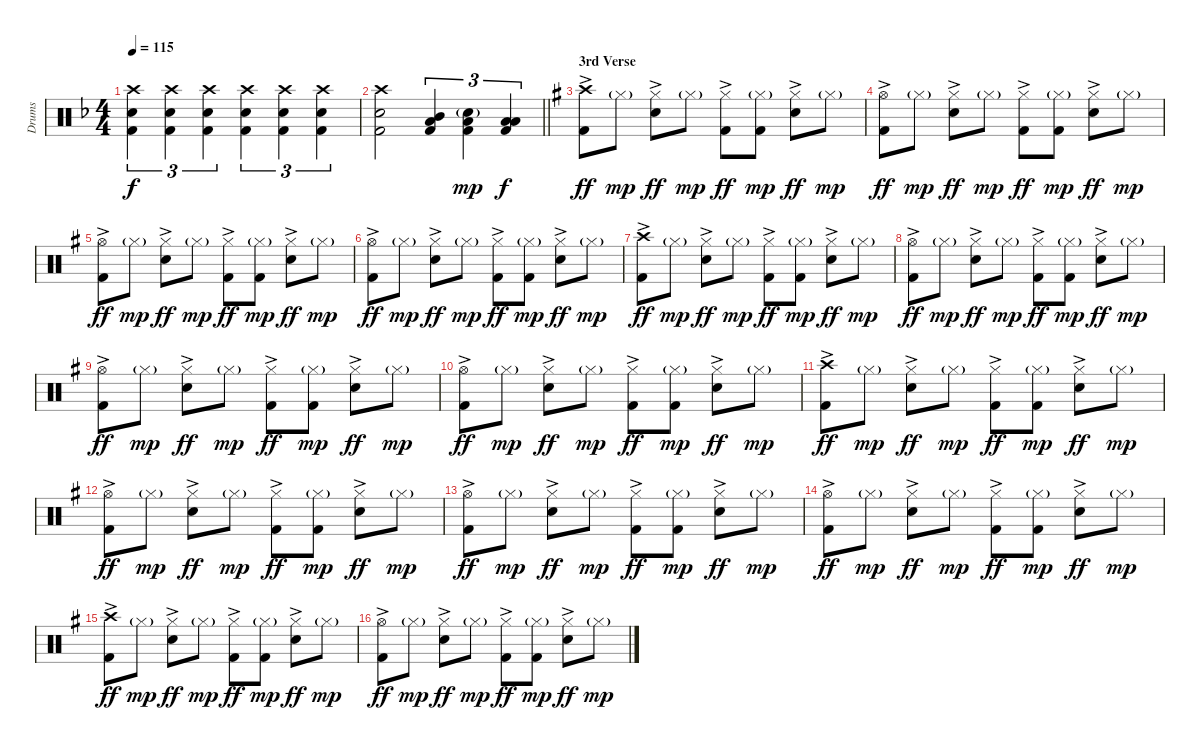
\track ("Drums" "Drums") {instrument percussion}
\staff {score}
\articulation defaults
\ts (4 4)
\tempo 115
\clef neutral
\ks f
("Crash high (hit)" "Snare (hit) 2" "Kick (hit) 2").4{tu (3 2) dy f} ("Crash high (hit)" "Snare (hit) 2" "Kick (hit) 2").4{tu (3 2)} ("Crash high (hit)" "Snare (hit) 2" "Kick (hit) 2").4{tu (3 2)} ("Crash high (hit)" "Snare (hit) 2" "Kick (hit) 2").4{tu (3 2)} ("Crash high (hit)" "Snare (hit) 2" "Kick (hit) 2").4{tu (3 2)} ("Crash high (hit)" "Snare (hit) 2" "Kick (hit) 2").4{tu (3 2)} |
\barLineRight lightlight
("Crash high (hit)" "Snare (hit) 2" "Kick (hit) 2").2 ("Mid Tom (hit)" "Low Tom (hit)" "Kick (hit) 2").4{tu (3 2)} ("Snare (hit) 2"{g} "Low Tom (hit)" "Kick (hit) 2").4{tu (3 2) dy mp} ("Low Tom (hit)" "Low Floor Tom (hit)" "Kick (hit) 2").4{tu (3 2) dy f} |
\section ("" "3rd Verse")
\ks g
("Crash high (hit)" "Kick (hit) 2"{ac}).8{dy ff} "Hi-Hat (closed)"{g}.8{dy mp} ("Hi-Hat (closed)" "Snare (hit) 2"{ac}).8{dy ff} "Hi-Hat (closed)"{g}.8{dy mp} ("Hi-Hat (closed)" "Kick (hit) 2"{ac}).8{dy ff} ("Hi-Hat (closed)"{g} "Kick (hit) 2").8{dy mp} ("Hi-Hat (closed)" "Snare (hit) 2"{ac}).8{dy ff} "Hi-Hat (closed)"{g}.8{dy mp} |
("Hi-Hat (open)" "Kick (hit) 2"{ac}).8{dy ff} "Hi-Hat (closed)"{g}.8{dy mp} ("Hi-Hat (closed)" "Snare (hit) 2"{ac}).8{dy ff} "Hi-Hat (closed)"{g}.8{dy mp} ("Hi-Hat (closed)" "Kick (hit) 2"{ac}).8{dy ff} ("Hi-Hat (closed)"{g} "Kick (hit) 2").8{dy mp} ("Hi-Hat (closed)" "Snare (hit) 2"{ac}).8{dy ff} "Hi-Hat (closed)"{g}.8{dy mp} |
("Hi-Hat (open)" "Kick (hit) 2"{ac}).8{dy ff} "Hi-Hat (closed)"{g}.8{dy mp} ("Hi-Hat (closed)" "Snare (hit) 2"{ac}).8{dy ff} "Hi-Hat (closed)"{g}.8{dy mp} ("Hi-Hat (closed)" "Kick (hit) 2"{ac}).8{dy ff} ("Hi-Hat (closed)"{g} "Kick (hit) 2").8{dy mp} ("Hi-Hat (closed)" "Snare (hit) 2"{ac}).8{dy ff} "Hi-Hat (closed)"{g}.8{dy mp} |
("Hi-Hat (open)" "Kick (hit) 2"{ac}).8{dy ff} "Hi-Hat (closed)"{g}.8{dy mp} ("Hi-Hat (closed)" "Snare (hit) 2"{ac}).8{dy ff} "Hi-Hat (closed)"{g}.8{dy mp} ("Hi-Hat (closed)" "Kick (hit) 2"{ac}).8{dy ff} ("Hi-Hat (closed)"{g} "Kick (hit) 2").8{dy mp} ("Hi-Hat (closed)" "Snare (hit) 2"{ac}).8{dy ff} "Hi-Hat (closed)"{g}.8{dy mp} |
("Crash high (hit)" "Kick (hit) 2"{ac}).8{dy ff} "Hi-Hat (closed)"{g}.8{dy mp} ("Hi-Hat (closed)" "Snare (hit) 2"{ac}).8{dy ff} "Hi-Hat (closed)"{g}.8{dy mp} ("Hi-Hat (closed)" "Kick (hit) 2"{ac}).8{dy ff} ("Hi-Hat (closed)"{g} "Kick (hit) 2").8{dy mp} ("Hi-Hat (closed)" "Snare (hit) 2"{ac}).8{dy ff} "Hi-Hat (closed)"{g}.8{dy mp} |
("Hi-Hat (open)" "Kick (hit) 2"{ac}).8{dy ff} "Hi-Hat (closed)"{g}.8{dy mp} ("Hi-Hat (closed)" "Snare (hit) 2"{ac}).8{dy ff} "Hi-Hat (closed)"{g}.8{dy mp} ("Hi-Hat (closed)" "Kick (hit) 2"{ac}).8{dy ff} ("Hi-Hat (closed)"{g} "Kick (hit) 2").8{dy mp} ("Hi-Hat (closed)" "Snare (hit) 2"{ac}).8{dy ff} "Hi-Hat (closed)"{g}.8{dy mp} |
("Hi-Hat (open)" "Kick (hit) 2"{ac}).8{dy ff} "Hi-Hat (closed)"{g}.8{dy mp} ("Hi-Hat (closed)" "Snare (hit) 2"{ac}).8{dy ff} "Hi-Hat (closed)"{g}.8{dy mp} ("Hi-Hat (closed)" "Kick (hit) 2"{ac}).8{dy ff} ("Hi-Hat (closed)"{g} "Kick (hit) 2").8{dy mp} ("Hi-Hat (closed)" "Snare (hit) 2"{ac}).8{dy ff} "Hi-Hat (closed)"{g}.8{dy mp} |
("Hi-Hat (open)" "Kick (hit) 2"{ac}).8{dy ff} "Hi-Hat (closed)"{g}.8{dy mp} ("Hi-Hat (closed)" "Snare (hit) 2"{ac}).8{dy ff} "Hi-Hat (closed)"{g}.8{dy mp} ("Hi-Hat (closed)" "Kick (hit) 2"{ac}).8{dy ff} ("Hi-Hat (closed)"{g} "Kick (hit) 2").8{dy mp} ("Hi-Hat (closed)" "Snare (hit) 2"{ac}).8{dy ff} "Hi-Hat (closed)"{g}.8{dy mp} |
("Crash high (hit)" "Kick (hit) 2"{ac}).8{dy ff} "Hi-Hat (closed)"{g}.8{dy mp} ("Hi-Hat (closed)" "Snare (hit) 2"{ac}).8{dy ff} "Hi-Hat (closed)"{g}.8{dy mp} ("Hi-Hat (closed)" "Kick (hit) 2"{ac}).8{dy ff} ("Hi-Hat (closed)"{g} "Kick (hit) 2").8{dy mp} ("Hi-Hat (closed)" "Snare (hit) 2"{ac}).8{dy ff} "Hi-Hat (closed)"{g}.8{dy mp} |
("Hi-Hat (open)" "Kick (hit) 2"{ac}).8{dy ff} "Hi-Hat (closed)"{g}.8{dy mp} ("Hi-Hat (closed)" "Snare (hit) 2"{ac}).8{dy ff} "Hi-Hat (closed)"{g}.8{dy mp} ("Hi-Hat (closed)" "Kick (hit) 2"{ac}).8{dy ff} ("Hi-Hat (closed)"{g} "Kick (hit) 2").8{dy mp} ("Hi-Hat (closed)" "Snare (hit) 2"{ac}).8{dy ff} "Hi-Hat (closed)"{g}.8{dy mp} |
("Hi-Hat (open)" "Kick (hit) 2"{ac}).8{dy ff} "Hi-Hat (closed)"{g}.8{dy mp} ("Hi-Hat (closed)" "Snare (hit) 2"{ac}).8{dy ff} "Hi-Hat (closed)"{g}.8{dy mp} ("Hi-Hat (closed)" "Kick (hit) 2"{ac}).8{dy ff} ("Hi-Hat (closed)"{g} "Kick (hit) 2").8{dy mp} ("Hi-Hat (closed)" "Snare (hit) 2"{ac}).8{dy ff} "Hi-Hat (closed)"{g}.8{dy mp} |
("Hi-Hat (open)" "Kick (hit) 2"{ac}).8{dy ff} "Hi-Hat (closed)"{g}.8{dy mp} ("Hi-Hat (closed)" "Snare (hit) 2"{ac}).8{dy ff} "Hi-Hat (closed)"{g}.8{dy mp} ("Hi-Hat (closed)" "Kick (hit) 2"{ac}).8{dy ff} ("Hi-Hat (closed)"{g} "Kick (hit) 2").8{dy mp} ("Hi-Hat (closed)" "Snare (hit) 2"{ac}).8{dy ff} "Hi-Hat (closed)"{g}.8{dy mp} |
("Crash high (hit)" "Kick (hit) 2"{ac}).8{dy ff} "Hi-Hat (closed)"{g}.8{dy mp} ("Hi-Hat (closed)" "Snare (hit) 2"{ac}).8{dy ff} "Hi-Hat (closed)"{g}.8{dy mp} ("Hi-Hat (closed)" "Kick (hit) 2"{ac}).8{dy ff} ("Hi-Hat (closed)"{g} "Kick (hit) 2").8{dy mp} ("Hi-Hat (closed)" "Snare (hit) 2"{ac}).8{dy ff} "Hi-Hat (closed)"{g}.8{dy mp} |
("Hi-Hat (open)" "Kick (hit) 2"{ac}).8{dy ff} "Hi-Hat (closed)"{g}.8{dy mp} ("Hi-Hat (closed)" "Snare (hit) 2"{ac}).8{dy ff} "Hi-Hat (closed)"{g}.8{dy mp} ("Hi-Hat (closed)" "Kick (hit) 2"{ac}).8{dy ff} ("Hi-Hat (closed)"{g} "Kick (hit) 2").8{dy mp} ("Hi-Hat (closed)" "Snare (hit) 2"{ac}).8{dy ff} "Hi-Hat (closed)"{g}.8{dy mp}
